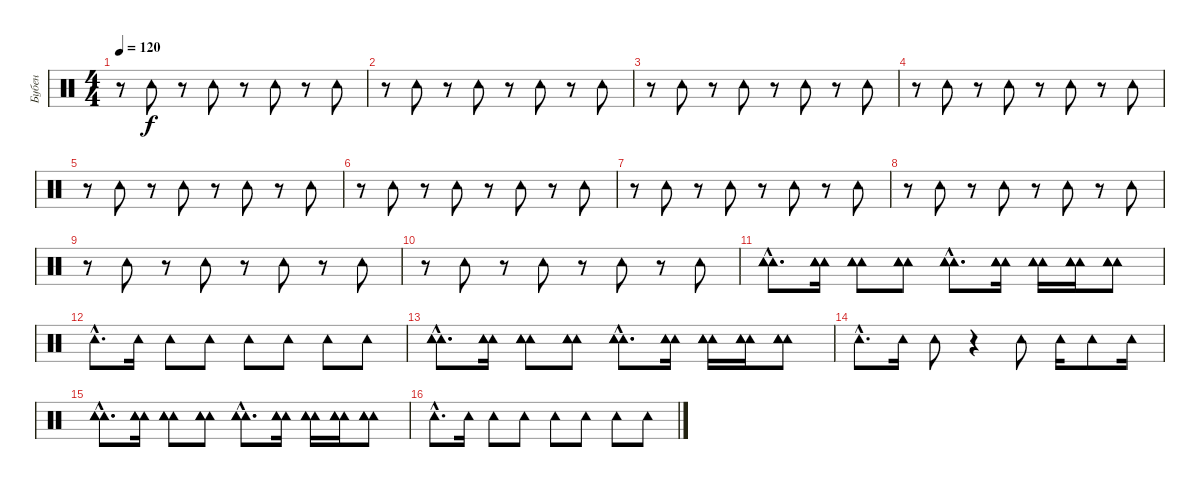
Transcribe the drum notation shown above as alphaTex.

\track ("Бубен" "Бубен") {instrument percussion}
\staff {score}
\articulation defaults
\ts (4 4)
\tempo 120
\clef neutral
\ks c
r.8{dy f} "Tambourine (hit)".8 r.8 "Tambourine (hit)".8 r.8 "Tambourine (hit)".8 r.8 "Tambourine (hit)".8 |
r.8 "Tambourine (hit)".8 r.8 "Tambourine (hit)".8 r.8 "Tambourine (hit)".8 r.8 "Tambourine (hit)".8 |
r.8 "Tambourine (hit)".8 r.8 "Tambourine (hit)".8 r.8 "Tambourine (hit)".8 r.8 "Tambourine (hit)".8 |
r.8 "Tambourine (hit)".8 r.8 "Tambourine (hit)".8 r.8 "Tambourine (hit)".8 r.8 "Tambourine (hit)".8 |
r.8 "Tambourine (hit)".8 r.8 "Tambourine (hit)".8 r.8 "Tambourine (hit)".8 r.8 "Tambourine (hit)".8 |
r.8 "Tambourine (hit)".8 r.8 "Tambourine (hit)".8 r.8 "Tambourine (hit)".8 r.8 "Tambourine (hit)".8 |
r.8 "Tambourine (hit)".8 r.8 "Tambourine (hit)".8 r.8 "Tambourine (hit)".8 r.8 "Tambourine (hit)".8 |
r.8 "Tambourine (hit)".8 r.8 "Tambourine (hit)".8 r.8 "Tambourine (hit)".8 r.8 "Tambourine (hit)".8 |
r.8 "Tambourine (hit)".8 r.8 "Tambourine (hit)".8 r.8 "Tambourine (hit)".8 r.8 "Tambourine (hit)".8 |
r.8 "Tambourine (hit)".8 r.8 "Tambourine (hit)".8 r.8 "Tambourine (hit)".8 r.8 "Tambourine (hit)".8 |
("Tambourine (hit)"{hac} "Tambourine (hit)"{hac} "Tambourine (hit)"{hac}).8{d} ("Tambourine (hit)" "Tambourine (hit)" "Tambourine (hit)").16 ("Tambourine (hit)" "Tambourine (hit)" "Tambourine (hit)").8 ("Tambourine (hit)" "Tambourine (hit)" "Tambourine (hit)").8 ("Tambourine (hit)"{hac} "Tambourine (hit)"{hac} "Tambourine (hit)"{hac}).8{d} ("Tambourine (hit)" "Tambourine (hit)" "Tambourine (hit)").16 ("Tambourine (hit)" "Tambourine (hit)" "Tambourine (hit)").16 ("Tambourine (hit)" "Tambourine (hit)" "Tambourine (hit)").16 ("Tambourine (hit)" "Tambourine (hit)" "Tambourine (hit)").8 |
"Tambourine (hit)"{hac}.8{d} "Tambourine (hit)".16 "Tambourine (hit)".8 "Tambourine (hit)".8 "Tambourine (hit)".8 "Tambourine (hit)".8 "Tambourine (hit)".8 "Tambourine (hit)".8 |
("Tambourine (hit)"{hac} "Tambourine (hit)"{hac} "Tambourine (hit)"{hac}).8{d} ("Tambourine (hit)" "Tambourine (hit)" "Tambourine (hit)").16 ("Tambourine (hit)" "Tambourine (hit)" "Tambourine (hit)").8 ("Tambourine (hit)" "Tambourine (hit)" "Tambourine (hit)").8 ("Tambourine (hit)"{hac} "Tambourine (hit)"{hac} "Tambourine (hit)"{hac}).8{d} ("Tambourine (hit)" "Tambourine (hit)" "Tambourine (hit)").16 ("Tambourine (hit)" "Tambourine (hit)" "Tambourine (hit)").16 ("Tambourine (hit)" "Tambourine (hit)" "Tambourine (hit)").16 ("Tambourine (hit)" "Tambourine (hit)" "Tambourine (hit)").8 |
"Tambourine (hit)"{hac}.8{d} "Tambourine (hit)".16 "Tambourine (hit)".8 r.4 "Tambourine (hit)".8 "Tambourine (hit)".16 "Tambourine (hit)".8 "Tambourine (hit)".16 |
("Tambourine (hit)"{hac} "Tambourine (hit)"{hac} "Tambourine (hit)"{hac}).8{d} ("Tambourine (hit)" "Tambourine (hit)" "Tambourine (hit)").16 ("Tambourine (hit)" "Tambourine (hit)" "Tambourine (hit)").8 ("Tambourine (hit)" "Tambourine (hit)" "Tambourine (hit)").8 ("Tambourine (hit)"{hac} "Tambourine (hit)"{hac} "Tambourine (hit)"{hac}).8{d} ("Tambourine (hit)" "Tambourine (hit)" "Tambourine (hit)").16 ("Tambourine (hit)" "Tambourine (hit)" "Tambourine (hit)").16 ("Tambourine (hit)" "Tambourine (hit)" "Tambourine (hit)").16 ("Tambourine (hit)" "Tambourine (hit)" "Tambourine (hit)").8 |
"Tambourine (hit)"{hac}.8{d} "Tambourine (hit)".16 "Tambourine (hit)".8 "Tambourine (hit)".8 "Tambourine (hit)".8 "Tambourine (hit)".8 "Tambourine (hit)".8 "Tambourine (hit)".8
